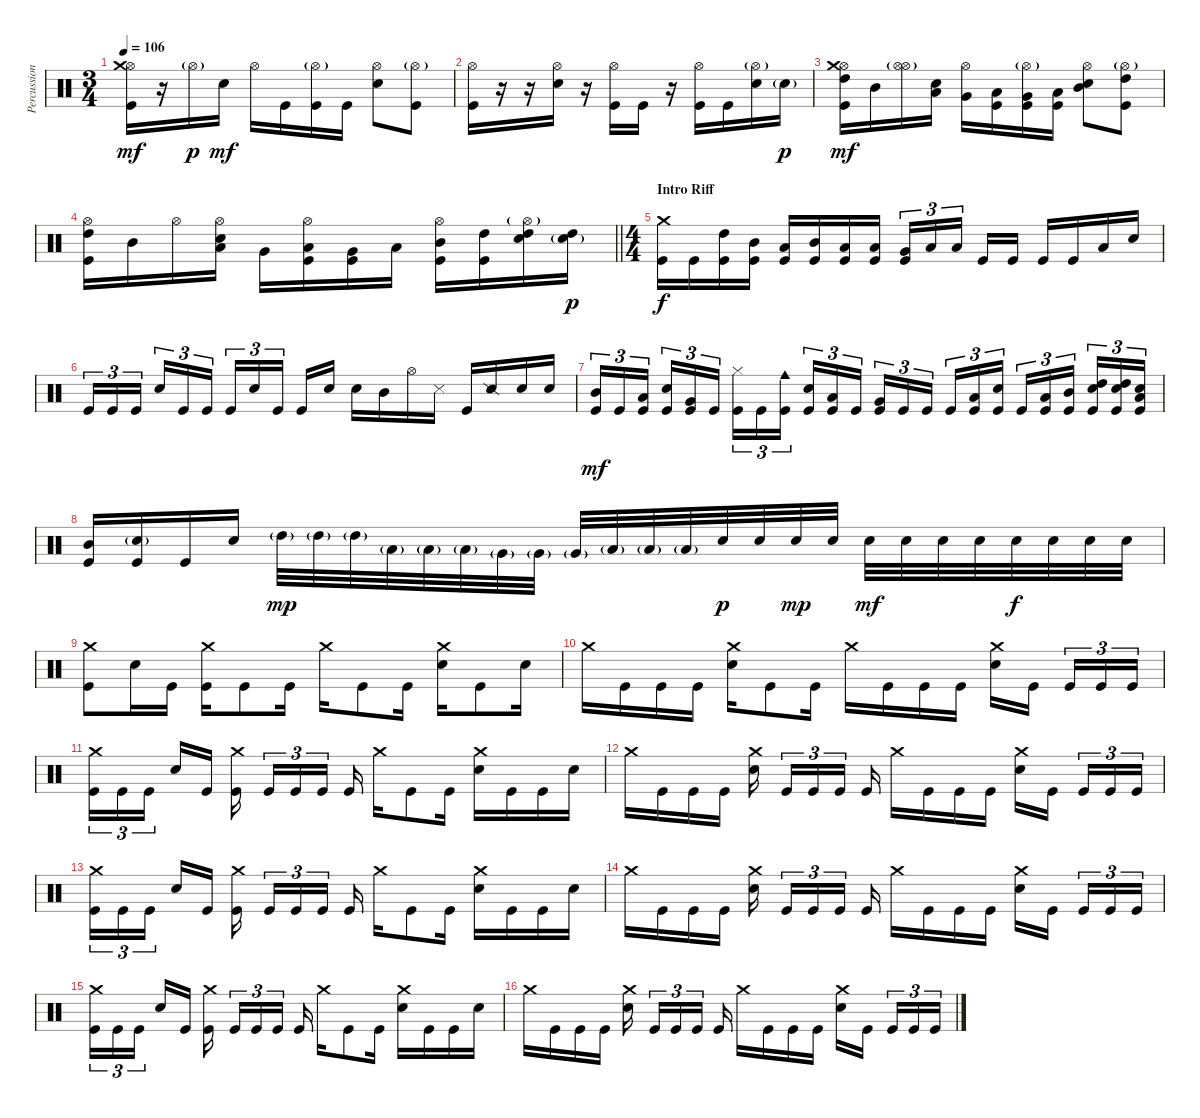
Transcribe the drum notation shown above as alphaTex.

\track ("Percussion" "Percussion") {instrument percussion}
\staff {score}
\articulation defaults
\ts (3 4)
\tempo 106
\clef neutral
\ks c
("Hi-Hat (open)" "Crash medium (hit)" "Kick (hit)").16{dy mf} r.16 "Hi-Hat (open)"{g}.16{dy p} "Snare (hit) 2".16{dy mf} "Hi-Hat (open)".16 "Kick (hit)".16 ("Hi-Hat (open)"{g} "Kick (hit)").16 "Kick (hit)".16 ("Hi-Hat (open)" "Snare (hit) 2").8 ("Hi-Hat (open)"{g} "Kick (hit)").8 |
("Hi-Hat (open)" "Kick (hit)").16 r.16 r.16 ("Hi-Hat (open)" "Snare (hit) 2").16 r.16 ("Hi-Hat (open)" "Kick (hit)").16 "Kick (hit)".16 r.16 ("Hi-Hat (open)" "Kick (hit)").16 "Kick (hit)".16 ("Hi-Hat (open)"{g} "Snare (hit) 2").16 "Snare (hit) 2"{g}.16{dy p} |
("Hi-Hat (open)" "Crash medium (hit)" "High Tom (hit)" "Kick (hit)").16{dy mf} "Mid Tom (hit)".16 ("Hi-Hat (open)"{g} "Hi-Hat (open)").16 ("Low Tom (hit)" "Snare (hit) 2").16 ("Hi-Hat (open)" "Very Low Tom (hit)").16 ("Low Floor Tom (hit)" "Kick (hit)").16 ("Hi-Hat (open)"{g} "Very Low Tom (hit)" "Kick (hit)").16 ("Low Tom (hit)" "Kick (hit)").16 ("Hi-Hat (open)" "Mid Tom (hit)" "Snare (hit) 2").8 ("Hi-Hat (open)"{g} "High Tom (hit)" "Kick (hit)").8 |
\barLineRight lightlight
("Hi-Hat (open)" "High Tom (hit)" "Kick (hit)").16 "Mid Tom (hit)".16 "Hi-Hat (open)".16 ("Hi-Hat (open)" "Low Tom (hit)" "Snare (hit) 2").16 "Very Low Tom (hit)".16 ("Hi-Hat (open)" "Low Floor Tom (hit)" "Kick (hit)").16 ("Very Low Tom (hit)" "Kick (hit)").16 "Low Tom (hit)".16 ("Hi-Hat (open)" "Mid Tom (hit)" "Kick (hit)").16 ("High Tom (hit)" "Kick (hit)").16 ("Hi-Hat (open)"{g} "High Tom (hit)" "Snare (hit) 2").16 ("High Tom (hit)" "Snare (hit) 2"{g}).16{dy p} |
\ts (4 4)
\section ("" "Intro Riff")
("Crash medium (hit)" "Kick (hit)").16{dy f} "Kick (hit)".16 ("High Tom (hit)" "Kick (hit)").16 ("Mid Tom (hit)" "Kick (hit)").16 ("Low Tom (hit)" "Kick (hit)").16 ("Mid Tom (hit)" "Kick (hit)").16 ("Low Tom (hit)" "Kick (hit)").16 ("Low Floor Tom (hit)" "Kick (hit)").16 ("Very Low Tom (hit)" "Kick (hit)").16{tu (3 2)} "Low Floor Tom (hit)".16{tu (3 2)} "Low Tom (hit)".16{tu (3 2) beam splitsecondary} "Kick (hit)".16 "Kick (hit)".16 "Kick (hit)".16 "Kick (hit)".16 "Low Floor Tom (hit)".16 "Snare (hit) 2".16 |
"Kick (hit)".16{tu (3 2)} "Kick (hit)".16{tu (3 2)} "Kick (hit)".16{tu (3 2) beam splitsecondary} "Snare (hit) 2".16{tu (3 2)} "Kick (hit)".16{tu (3 2)} "Kick (hit)".16{tu (3 2)} "Kick (hit)".16{tu (3 2)} "Snare (hit) 2".16{tu (3 2)} "Kick (hit)".16{tu (3 2) beam splitsecondary} "Kick (hit)".16 "Snare (hit) 2".16 "Snare (hit) 2".16 "Mid Tom (hit)".16 "Hi-Hat (open)".16 "Snare (side stick) 3".16 "Kick (hit)".16 "Snare (side stick) 2".16 "Snare (hit) 2".16 "Snare (hit) 2".16 |
("Mid Tom (hit)" "Kick (hit)").16{tu (3 2) dy mf} "Kick (hit)".16{tu (3 2)} ("Low Tom (hit)" "Kick (hit)").16{tu (3 2) beam splitsecondary} ("Snare (hit) 2" "Kick (hit)").16{tu (3 2)} ("Very Low Tom (hit)" "Kick (hit)").16{tu (3 2)} "Kick (hit)".16{tu (3 2)} ("Hi-Hat (closed)" "Kick (hit)").16{tu (3 2)} "Kick (hit)".16{tu (3 2)} ("Cowbell medium (hit)" "Kick (hit)").16{tu (3 2) beam splitsecondary} ("Snare (hit) 2" "Kick (hit)").16{tu (3 2)} ("Low Tom (hit)" "Kick (hit)").16{tu (3 2)} "Kick (hit)".16{tu (3 2)} ("Very Low Tom (hit)" "Kick (hit)").16{tu (3 2)} "Kick (hit)".16{tu (3 2)} "Kick (hit)".16{tu (3 2) beam splitsecondary} "Kick (hit)".16{tu (3 2)} ("Low Floor Tom (hit)" "Kick (hit)").16{tu (3 2)} ("Snare (hit) 2" "Kick (hit)").16{tu (3 2)} "Kick (hit)".16{tu (3 2)} ("Low Tom (hit)" "Kick (hit)").16{tu (3 2)} ("Mid Tom (hit)" "Kick (hit)").16{tu (3 2) beam splitsecondary} ("High Tom (hit)" "Snare (hit) 2" "Kick (hit)").16{tu (3 2)} ("High Tom (hit)" "Snare (hit) 2" "Kick (hit)").16{tu (3 2)} ("Low Floor Tom (hit)" "Snare (hit) 2" "Kick (hit)").16{tu (3 2)} |
("Mid Tom (hit)" "Kick (hit)").16 ("Snare (hit) 2"{g} "Kick (hit)").16 "Kick (hit)".16 "Snare (hit) 2".16 "High Tom (hit)"{g}.32{dy mp} "High Tom (hit)"{g}.32 "High Tom (hit)"{g}.32 "Low Tom (hit)"{g}.32 "Low Tom (hit)"{g}.32 "Low Tom (hit)"{g}.32 "Very Low Tom (hit)"{g}.32 "Very Low Tom (hit)"{g}.32 "Very Low Tom (hit)"{g}.32 "Low Floor Tom (hit)"{g}.32 "Low Floor Tom (hit)"{g}.32 "Low Floor Tom (hit)"{g}.32 "Snare (hit) 2".32{dy p} "Snare (hit) 2".32 "Snare (hit) 2".32{dy mp} "Snare (hit) 2".32 "Snare (hit) 2".32{dy mf} "Snare (hit) 2".32 "Snare (hit) 2".32 "Snare (hit) 2".32 "Snare (hit) 2".32{dy f} "Snare (hit) 2".32 "Snare (hit) 2".32 "Snare (hit) 2".32 |
("Crash medium (hit)" "Kick (hit)").8 "Snare (hit) 2".16 "Kick (hit)".16 ("Crash medium (hit)" "Kick (hit)").16 "Kick (hit)".8 "Kick (hit)".16 "Crash medium (hit)".16 "Kick (hit)".8 "Kick (hit)".16 ("Crash medium (hit)" "Snare (hit) 2").16 "Kick (hit)".8 "Snare (hit) 2".16 |
"Crash medium (hit)".16 "Kick (hit)".16 "Kick (hit)".16 "Kick (hit)".16 ("Crash medium (hit)" "Snare (hit) 2").16 "Kick (hit)".8 "Kick (hit)".16 "Crash medium (hit)".16 "Kick (hit)".16 "Kick (hit)".16 "Kick (hit)".16 ("Crash medium (hit)" "Snare (hit) 2").16 "Kick (hit)".16{beam splitsecondary} "Kick (hit)".16{tu (3 2)} "Kick (hit)".16{tu (3 2)} "Kick (hit)".16{tu (3 2)} |
("Crash medium (hit)" "Kick (hit)").16{tu (3 2)} "Kick (hit)".16{tu (3 2)} "Kick (hit)".16{tu (3 2) beam splitsecondary} "Snare (hit) 2".16 "Kick (hit)".16 ("Crash medium (hit)" "Kick (hit)").16{beam splitsecondary} "Kick (hit)".16{tu (3 2)} "Kick (hit)".16{tu (3 2)} "Kick (hit)".16{tu (3 2) beam splitsecondary} "Kick (hit)".16 "Crash medium (hit)".16 "Kick (hit)".8 "Kick (hit)".16 ("Crash medium (hit)" "Snare (hit) 2").16 "Kick (hit)".16 "Kick (hit)".16 "Snare (hit) 2".16 |
"Crash medium (hit)".16 "Kick (hit)".16 "Kick (hit)".16 "Kick (hit)".16 ("Crash medium (hit)" "Snare (hit) 2").16{beam splitsecondary} "Kick (hit)".16{tu (3 2)} "Kick (hit)".16{tu (3 2)} "Kick (hit)".16{tu (3 2) beam splitsecondary} "Kick (hit)".16 "Crash medium (hit)".16 "Kick (hit)".16 "Kick (hit)".16 "Kick (hit)".16 ("Crash medium (hit)" "Snare (hit) 2").16 "Kick (hit)".16{beam splitsecondary} "Kick (hit)".16{tu (3 2)} "Kick (hit)".16{tu (3 2)} "Kick (hit)".16{tu (3 2)} |
("Crash medium (hit)" "Kick (hit)").16{tu (3 2)} "Kick (hit)".16{tu (3 2)} "Kick (hit)".16{tu (3 2) beam splitsecondary} "Snare (hit) 2".16 "Kick (hit)".16 ("Crash medium (hit)" "Kick (hit)").16{beam splitsecondary} "Kick (hit)".16{tu (3 2)} "Kick (hit)".16{tu (3 2)} "Kick (hit)".16{tu (3 2) beam splitsecondary} "Kick (hit)".16 "Crash medium (hit)".16 "Kick (hit)".8 "Kick (hit)".16 ("Crash medium (hit)" "Snare (hit) 2").16 "Kick (hit)".16 "Kick (hit)".16 "Snare (hit) 2".16 |
"Crash medium (hit)".16 "Kick (hit)".16 "Kick (hit)".16 "Kick (hit)".16 ("Crash medium (hit)" "Snare (hit) 2").16{beam splitsecondary} "Kick (hit)".16{tu (3 2)} "Kick (hit)".16{tu (3 2)} "Kick (hit)".16{tu (3 2) beam splitsecondary} "Kick (hit)".16 "Crash medium (hit)".16 "Kick (hit)".16 "Kick (hit)".16 "Kick (hit)".16 ("Crash medium (hit)" "Snare (hit) 2").16 "Kick (hit)".16{beam splitsecondary} "Kick (hit)".16{tu (3 2)} "Kick (hit)".16{tu (3 2)} "Kick (hit)".16{tu (3 2)} |
("Crash medium (hit)" "Kick (hit)").16{tu (3 2)} "Kick (hit)".16{tu (3 2)} "Kick (hit)".16{tu (3 2) beam splitsecondary} "Snare (hit) 2".16 "Kick (hit)".16 ("Crash medium (hit)" "Kick (hit)").16{beam splitsecondary} "Kick (hit)".16{tu (3 2)} "Kick (hit)".16{tu (3 2)} "Kick (hit)".16{tu (3 2) beam splitsecondary} "Kick (hit)".16 "Crash medium (hit)".16 "Kick (hit)".8 "Kick (hit)".16 ("Crash medium (hit)" "Snare (hit) 2").16 "Kick (hit)".16 "Kick (hit)".16 "Snare (hit) 2".16 |
"Crash medium (hit)".16 "Kick (hit)".16 "Kick (hit)".16 "Kick (hit)".16 ("Crash medium (hit)" "Snare (hit) 2").16{beam splitsecondary} "Kick (hit)".16{tu (3 2)} "Kick (hit)".16{tu (3 2)} "Kick (hit)".16{tu (3 2) beam splitsecondary} "Kick (hit)".16 "Crash medium (hit)".16 "Kick (hit)".16 "Kick (hit)".16 "Kick (hit)".16 ("Crash medium (hit)" "Snare (hit) 2").16 "Kick (hit)".16{beam splitsecondary} "Kick (hit)".16{tu (3 2)} "Kick (hit)".16{tu (3 2)} "Kick (hit)".16{tu (3 2)}
